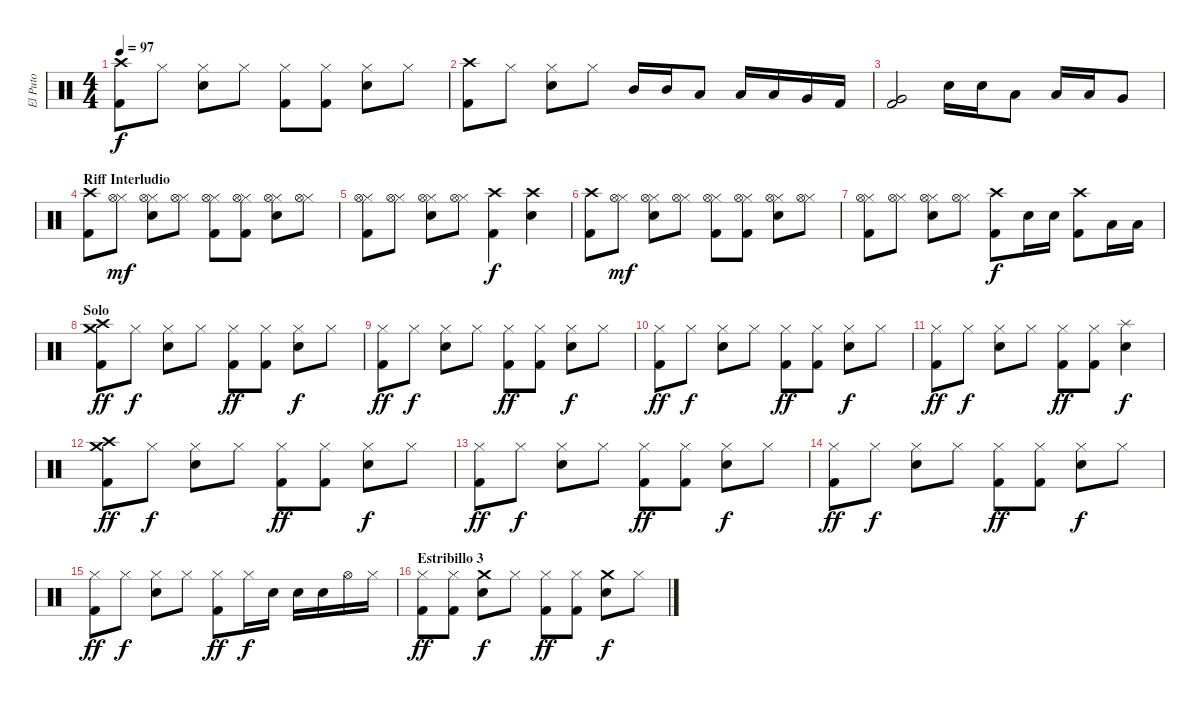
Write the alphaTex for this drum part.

\track ("El Puto" "El Puto") {instrument percussion}
\staff {score}
\articulation defaults
\ts (4 4)
\tempo 97
\clef neutral
\ks c
("Crash high (hit)" "Kick (hit) 2").8{dy f} "Hi-Hat (closed)".8 ("Hi-Hat (closed)" "Snare (hit) 2").8 "Hi-Hat (closed)".8 ("Hi-Hat (closed)" "Kick (hit) 2").8 ("Hi-Hat (closed)" "Kick (hit) 2").8 ("Hi-Hat (closed)" "Snare (hit) 2").8 "Hi-Hat (closed)".8 |
("Crash high (hit)" "Kick (hit) 2").8 "Hi-Hat (closed)".8 ("Hi-Hat (closed)" "Snare (hit) 2").8 "Hi-Hat (closed)".8 "Mid Tom (hit)".16 "Mid Tom (hit)".16 "Low Tom (hit)".8 "Low Tom (hit)".16 "Low Tom (hit)".16 "Very Low Tom (hit)".16 "Kick (hit) 2".16 |
("Very Low Tom (hit)" "Kick (hit) 2").2 "Snare (hit) 2".16 "Snare (hit) 2".16 "Low Tom (hit)".8 "Low Tom (hit)".16 "Low Tom (hit)".16 "Very Low Tom (hit)".8 |
\section ("" "Riff Interludio")
("Crash high (hit)" "Kick (hit) 2").8 ("Hi-Hat (closed)" "Hi-Hat (open)").8{dy mf} ("Hi-Hat (closed)" "Hi-Hat (open)" "Snare (hit) 2").8 ("Hi-Hat (closed)" "Hi-Hat (open)").8 ("Hi-Hat (closed)" "Hi-Hat (open)" "Kick (hit) 2").8 ("Hi-Hat (closed)" "Hi-Hat (open)" "Kick (hit) 2").8 ("Hi-Hat (closed)" "Hi-Hat (open)" "Snare (hit) 2").8 ("Hi-Hat (closed)" "Hi-Hat (open)").8 |
("Hi-Hat (closed)" "Hi-Hat (open)" "Kick (hit) 2").8 ("Hi-Hat (closed)" "Hi-Hat (open)").8 ("Hi-Hat (closed)" "Hi-Hat (open)" "Snare (hit) 2").8 ("Hi-Hat (closed)" "Hi-Hat (open)").8 ("Crash high (hit)" "Kick (hit) 2").4{dy f} ("Crash high (hit)" "Snare (hit) 2").4 |
("Crash high (hit)" "Kick (hit) 2").8 ("Hi-Hat (closed)" "Hi-Hat (open)").8{dy mf} ("Hi-Hat (closed)" "Hi-Hat (open)" "Snare (hit) 2").8 ("Hi-Hat (closed)" "Hi-Hat (open)").8 ("Hi-Hat (closed)" "Hi-Hat (open)" "Kick (hit) 2").8 ("Hi-Hat (closed)" "Hi-Hat (open)" "Kick (hit) 2").8 ("Hi-Hat (closed)" "Hi-Hat (open)" "Snare (hit) 2").8 ("Hi-Hat (closed)" "Hi-Hat (open)").8 |
("Hi-Hat (closed)" "Hi-Hat (open)" "Kick (hit) 2").8 ("Hi-Hat (closed)" "Hi-Hat (open)").8 ("Hi-Hat (closed)" "Hi-Hat (open)" "Snare (hit) 2").8 ("Hi-Hat (closed)" "Hi-Hat (open)").8 ("Crash high (hit)" "Kick (hit) 2").8{dy f} "Snare (hit) 2".16 "Snare (hit) 2".16 ("Crash high (hit)" "Kick (hit) 2").8 "Low Tom (hit)".16 "Low Tom (hit)".16 |
\section ("" "Solo")
("Crash high (hit)" "Crash medium (hit)" "Kick (hit) 2").8{dy ff} "Hi-Hat (closed)".8{dy f} ("Hi-Hat (closed)" "Snare (hit) 2").8 "Hi-Hat (closed)".8 ("Hi-Hat (closed)" "Kick (hit) 2").8{dy ff} ("Hi-Hat (closed)" "Kick (hit) 2").8 ("Hi-Hat (closed)" "Snare (hit) 2").8{dy f} "Hi-Hat (closed)".8 |
("Hi-Hat (closed)" "Kick (hit) 2").8{dy ff} "Hi-Hat (closed)".8{dy f} ("Hi-Hat (closed)" "Snare (hit) 2").8 "Hi-Hat (closed)".8 ("Hi-Hat (closed)" "Kick (hit) 2").8{dy ff} ("Hi-Hat (closed)" "Kick (hit) 2").8 ("Hi-Hat (closed)" "Snare (hit) 2").8{dy f} "Hi-Hat (closed)".8 |
("Hi-Hat (closed)" "Kick (hit) 2").8{dy ff} "Hi-Hat (closed)".8{dy f} ("Hi-Hat (closed)" "Snare (hit) 2").8 "Hi-Hat (closed)".8 ("Hi-Hat (closed)" "Kick (hit) 2").8{dy ff} ("Hi-Hat (closed)" "Kick (hit) 2").8 ("Hi-Hat (closed)" "Snare (hit) 2").8{dy f} "Hi-Hat (closed)".8 |
("Hi-Hat (closed)" "Kick (hit) 2").8{dy ff} "Hi-Hat (closed)".8{dy f} ("Hi-Hat (closed)" "Snare (hit) 2").8 "Hi-Hat (closed)".8 ("Hi-Hat (closed)" "Kick (hit) 2").8{dy ff} ("Hi-Hat (closed)" "Kick (hit) 2").8 ("Splash (hit)" "Snare (hit) 2").4{dy f} |
("Crash high (hit)" "Crash medium (hit)" "Kick (hit) 2").8{dy ff} "Hi-Hat (closed)".8{dy f} ("Hi-Hat (closed)" "Snare (hit) 2").8 "Hi-Hat (closed)".8 ("Hi-Hat (closed)" "Kick (hit) 2").8{dy ff} ("Hi-Hat (closed)" "Kick (hit) 2").8 ("Hi-Hat (closed)" "Snare (hit) 2").8{dy f} "Hi-Hat (closed)".8 |
("Hi-Hat (closed)" "Kick (hit) 2").8{dy ff} "Hi-Hat (closed)".8{dy f} ("Hi-Hat (closed)" "Snare (hit) 2").8 "Hi-Hat (closed)".8 ("Hi-Hat (closed)" "Kick (hit) 2").8{dy ff} ("Hi-Hat (closed)" "Kick (hit) 2").8 ("Hi-Hat (closed)" "Snare (hit) 2").8{dy f} "Hi-Hat (closed)".8 |
("Hi-Hat (closed)" "Kick (hit) 2").8{dy ff} "Hi-Hat (closed)".8{dy f} ("Hi-Hat (closed)" "Snare (hit) 2").8 "Hi-Hat (closed)".8 ("Hi-Hat (closed)" "Kick (hit) 2").8{dy ff} ("Hi-Hat (closed)" "Kick (hit) 2").8 ("Hi-Hat (closed)" "Snare (hit) 2").8{dy f} "Hi-Hat (closed)".8 |
("Hi-Hat (closed)" "Kick (hit) 2").8{dy ff} "Hi-Hat (closed)".8{dy f} ("Hi-Hat (closed)" "Snare (hit) 2").8 "Hi-Hat (closed)".8 ("Hi-Hat (closed)" "Kick (hit) 2").8{dy ff} "Hi-Hat (closed)".16{dy f} "Snare (hit) 2".16 "Snare (hit) 2".16 "Snare (hit) 2".16 "Hi-Hat (open)".16 "Hi-Hat (closed)".16 |
\section ("" "Estribillo 3")
("Hi-Hat (closed)" "Kick (hit) 2").8{dy ff} ("Hi-Hat (closed)" "Kick (hit) 2").8 ("Crash medium (hit)" "Snare (hit) 2").8{dy f} "Hi-Hat (closed)".8 ("Hi-Hat (closed)" "Kick (hit) 2").8{dy ff} ("Hi-Hat (closed)" "Kick (hit) 2").8 ("Crash medium (hit)" "Snare (hit) 2").8{dy f} "Hi-Hat (closed)".8
